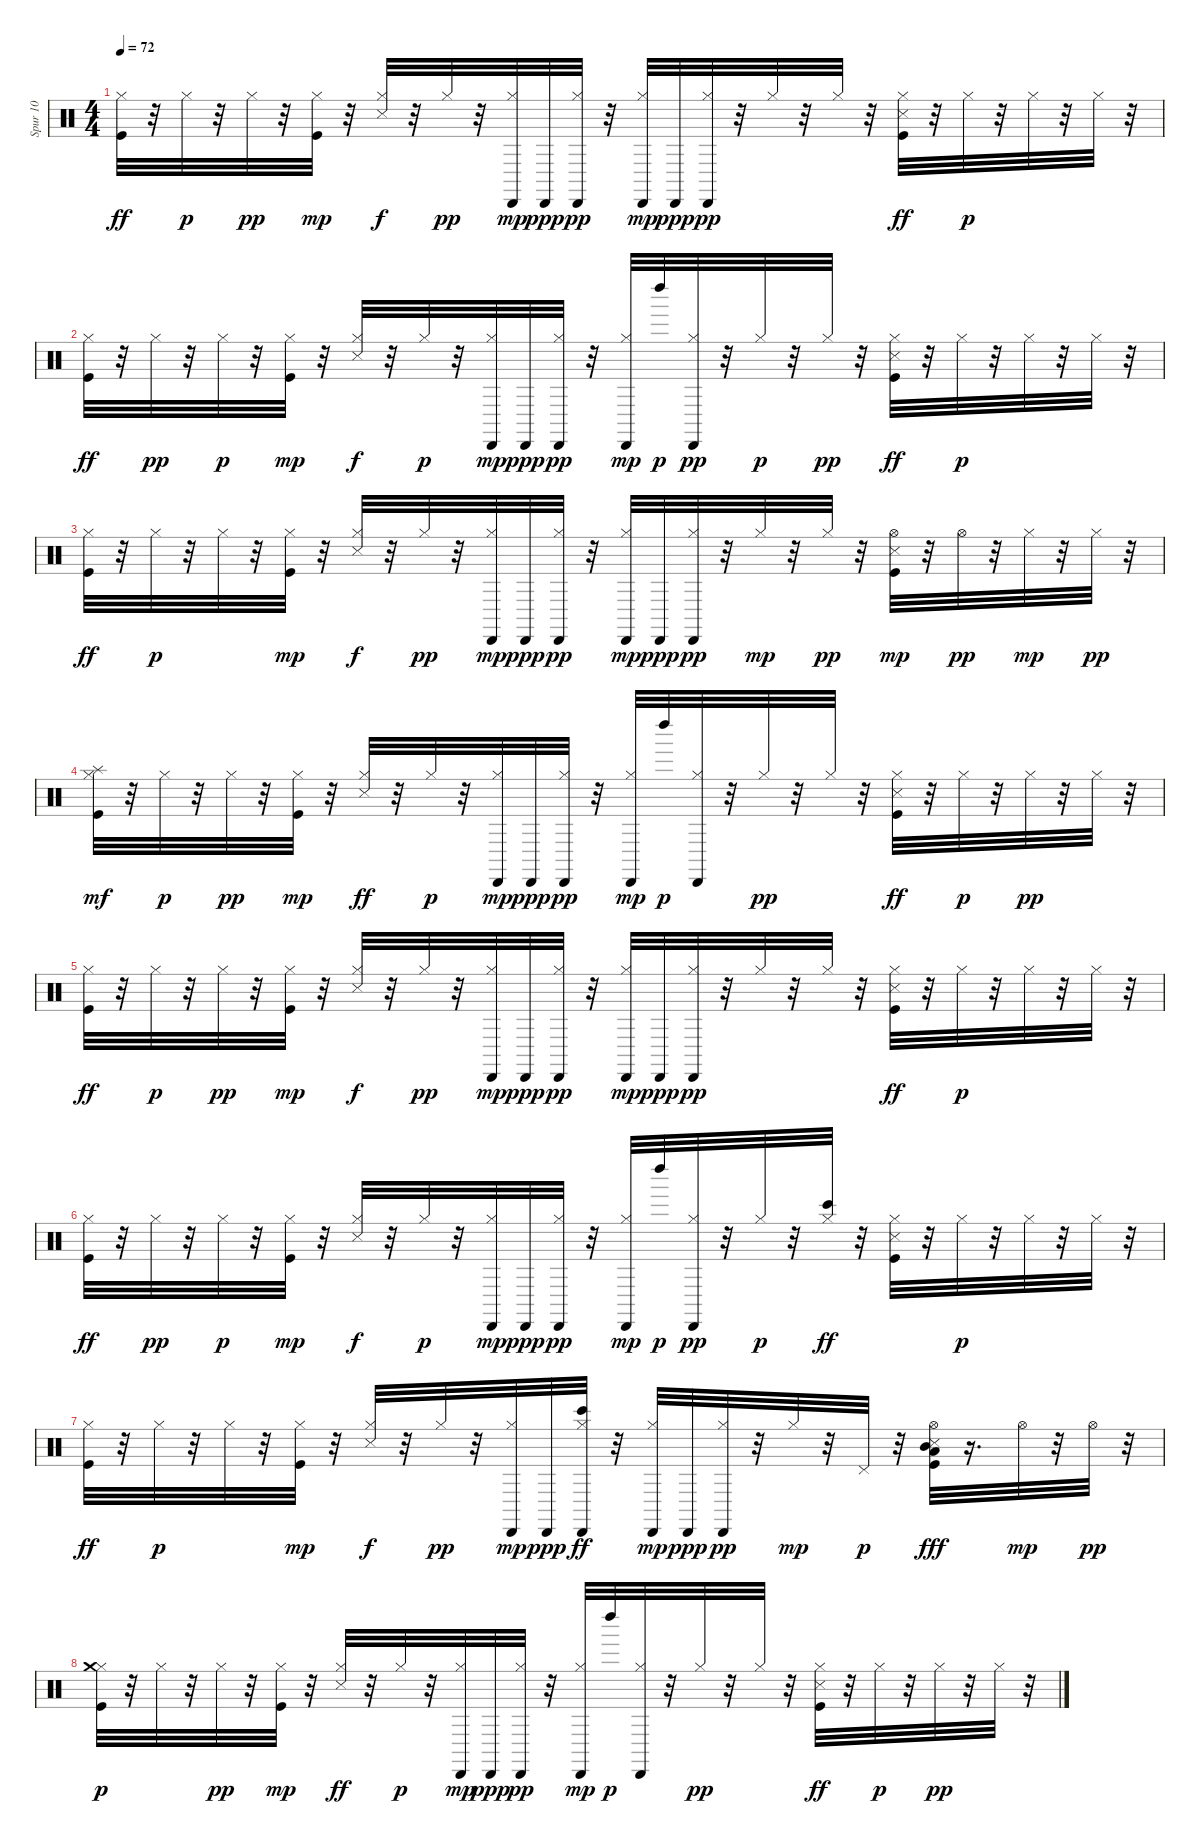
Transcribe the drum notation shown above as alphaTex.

\track ("Spur 10" "Spur 10") {instrument percussion}
\staff {score}
\articulation defaults
\ts (4 4)
\tempo 72
\clef neutral
\ks c
("Kick (hit)" "Hi-Hat (closed)").32{dy ff} r.32 "Hi-Hat (closed)".32{dy p} r.32 "Hi-Hat (closed)".32{dy pp} r.32 ("Hi-Hat (closed)" "Kick (hit)").32{dy mp} r.32 ("Hi-Hat (closed)" "Snare (side stick) 3").32{dy f} r.32 "Hi-Hat (closed)".32{dy pp} r.32 ("Hi-Hat (closed)" "Cabasa (hit)").32{dy mp} "Cabasa (hit)".32{dy ppp} ("Hi-Hat (closed)" "Cabasa (hit)").32{dy pp} r.32 ("Hi-Hat (closed)" "Cabasa (hit)").32{dy mp} "Cabasa (hit)".32{dy ppp} ("Cabasa (hit)" "Hi-Hat (closed)").32{dy pp} r.32 "Hi-Hat (closed)".32 r.32 "Hi-Hat (closed)".32 r.32 ("Snare (side stick) 3" "Kick (hit)" "Hi-Hat (closed)").32{dy ff} r.32 "Hi-Hat (closed)".32{dy p} r.32 "Hi-Hat (closed)".32 r.32 "Hi-Hat (closed)".32 r.32 |
("Kick (hit)" "Hi-Hat (closed)").32{dy ff} r.32 "Hi-Hat (closed)".32{dy pp} r.32 "Hi-Hat (closed)".32{dy p} r.32 ("Hi-Hat (closed)" "Kick (hit)").32{dy mp} r.32 ("Hi-Hat (closed)" "Snare (side stick) 3").32{dy f} r.32 "Hi-Hat (closed)".32{dy p} r.32 ("Hi-Hat (closed)" "Cabasa (hit)").32{dy mp} "Cabasa (hit)".32{dy ppp} ("Hi-Hat (closed)" "Cabasa (hit)").32{dy pp} r.32 ("Hi-Hat (closed)" "Cabasa (hit)").32{dy mp} "Left Maraca (hit)".32{dy p} ("Cabasa (hit)" "Hi-Hat (closed)").32{dy pp} r.32 "Hi-Hat (closed)".32{dy p} r.32 "Hi-Hat (closed)".32{dy pp} r.32 ("Snare (side stick) 3" "Kick (hit)" "Hi-Hat (closed)").32{dy ff} r.32 "Hi-Hat (closed)".32{dy p} r.32 "Hi-Hat (closed)".32 r.32 "Hi-Hat (closed)".32 r.32 |
("Kick (hit)" "Hi-Hat (closed)").32{dy ff} r.32 "Hi-Hat (closed)".32{dy p} r.32 "Hi-Hat (closed)".32 r.32 ("Hi-Hat (closed)" "Kick (hit)").32{dy mp} r.32 ("Hi-Hat (closed)" "Snare (side stick) 3").32{dy f} r.32 "Hi-Hat (closed)".32{dy pp} r.32 ("Hi-Hat (closed)" "Cabasa (hit)").32{dy mp} "Cabasa (hit)".32{dy ppp} ("Hi-Hat (closed)" "Cabasa (hit)").32{dy pp} r.32 ("Hi-Hat (closed)" "Cabasa (hit)").32{dy mp} "Cabasa (hit)".32{dy ppp} ("Cabasa (hit)" "Hi-Hat (closed)").32{dy pp} r.32 "Hi-Hat (closed)".32{dy mp} r.32 "Hi-Hat (closed)".32{dy pp} r.32 ("Snare (side stick) 3" "Kick (hit)" "Hi-Hat (open)").32{dy mp} r.32 "Hi-Hat (open)".32{dy pp} r.32 "Hi-Hat (closed)".32{dy mp} r.32 "Hi-Hat (closed)".32{dy pp} r.32 |
("Kick (hit)" "Hi-Hat (closed)" "Splash (hit)").32{dy mf} r.32 "Hi-Hat (closed)".32{dy p} r.32 "Hi-Hat (closed)".32{dy pp} r.32 ("Hi-Hat (closed)" "Kick (hit)").32{dy mp} r.32 ("Hi-Hat (closed)" "Snare (side stick) 3").32{dy ff} r.32 "Hi-Hat (closed)".32{dy p} r.32 ("Hi-Hat (closed)" "Cabasa (hit)").32{dy mp} "Cabasa (hit)".32{dy ppp} ("Hi-Hat (closed)" "Cabasa (hit)").32{dy pp} r.32 ("Cabasa (hit)" "Hi-Hat (closed)").32{dy mp} "Left Maraca (hit)".32{dy p} ("Cabasa (hit)" "Hi-Hat (closed)").32 r.32 "Hi-Hat (closed)".32{dy pp} r.32 "Hi-Hat (closed)".32 r.32 ("Snare (side stick) 3" "Kick (hit)" "Hi-Hat (closed)").32{dy ff} r.32 "Hi-Hat (closed)".32{dy p} r.32 "Hi-Hat (closed)".32{dy pp} r.32 "Hi-Hat (closed)".32 r.32 |
("Kick (hit)" "Hi-Hat (closed)").32{dy ff} r.32 "Hi-Hat (closed)".32{dy p} r.32 "Hi-Hat (closed)".32{dy pp} r.32 ("Hi-Hat (closed)" "Kick (hit)").32{dy mp} r.32 ("Hi-Hat (closed)" "Snare (side stick) 3").32{dy f} r.32 "Hi-Hat (closed)".32{dy pp} r.32 ("Hi-Hat (closed)" "Cabasa (hit)").32{dy mp} "Cabasa (hit)".32{dy ppp} ("Hi-Hat (closed)" "Cabasa (hit)").32{dy pp} r.32 ("Hi-Hat (closed)" "Cabasa (hit)").32{dy mp} "Cabasa (hit)".32{dy ppp} ("Cabasa (hit)" "Hi-Hat (closed)").32{dy pp} r.32 "Hi-Hat (closed)".32 r.32 "Hi-Hat (closed)".32 r.32 ("Snare (side stick) 3" "Kick (hit)" "Hi-Hat (closed)").32{dy ff} r.32 "Hi-Hat (closed)".32{dy p} r.32 "Hi-Hat (closed)".32 r.32 "Hi-Hat (closed)".32 r.32 |
("Kick (hit)" "Hi-Hat (closed)").32{dy ff} r.32 "Hi-Hat (closed)".32{dy pp} r.32 "Hi-Hat (closed)".32{dy p} r.32 ("Hi-Hat (closed)" "Kick (hit)").32{dy mp} r.32 ("Hi-Hat (closed)" "Snare (side stick) 3").32{dy f} r.32 "Hi-Hat (closed)".32{dy p} r.32 ("Hi-Hat (closed)" "Cabasa (hit)").32{dy mp} "Cabasa (hit)".32{dy ppp} ("Hi-Hat (closed)" "Cabasa (hit)").32{dy pp} r.32 ("Hi-Hat (closed)" "Cabasa (hit)").32{dy mp} "Left Maraca (hit)".32{dy p} ("Cabasa (hit)" "Hi-Hat (closed)").32{dy pp} r.32 "Hi-Hat (closed)".32{dy p} r.32 ("Hi-Hat (closed)" "Bongo High (hit)").32{dy ff} r.32 ("Snare (side stick) 3" "Kick (hit)" "Hi-Hat (closed)").32 r.32 "Hi-Hat (closed)".32{dy p} r.32 "Hi-Hat (closed)".32 r.32 "Hi-Hat (closed)".32 r.32 |
("Kick (hit)" "Hi-Hat (closed)").32{dy ff} r.32 "Hi-Hat (closed)".32{dy p} r.32 "Hi-Hat (closed)".32 r.32 ("Hi-Hat (closed)" "Kick (hit)").32{dy mp} r.32 ("Hi-Hat (closed)" "Snare (side stick) 3").32{dy f} r.32 "Hi-Hat (closed)".32{dy pp} r.32 ("Hi-Hat (closed)" "Cabasa (hit)").32{dy mp} "Cabasa (hit)".32{dy ppp} ("Hi-Hat (closed)" "Cabasa (hit)" "Bongo High (hit)").32{dy ff} r.32 ("Hi-Hat (closed)" "Cabasa (hit)").32{dy mp} "Cabasa (hit)".32{dy ppp} ("Cabasa (hit)" "Hi-Hat (closed)").32{dy pp} r.32 "Hi-Hat (closed)".32{dy mp} r.32 "Pedal Hi-Hat (hit)".32{dy p} r.32 ("Low Floor Tom (hit)" "Snare (side stick) 3" "Kick (hit)" "Hi-Hat (open)" "Mid Tom (hit)").32{dy fff} r.16{d} "Hi-Hat (open)".32{dy mp} r.32 "Hi-Hat (open)".32{dy pp} r.32 |
("Kick (hit)" "Hi-Hat (closed)" "Crash medium (hit)").32{dy p} r.32 "Hi-Hat (closed)".32 r.32 "Hi-Hat (closed)".32{dy pp} r.32 ("Hi-Hat (closed)" "Kick (hit)").32{dy mp} r.32 ("Hi-Hat (closed)" "Snare (side stick) 3").32{dy ff} r.32 "Hi-Hat (closed)".32{dy p} r.32 ("Hi-Hat (closed)" "Cabasa (hit)").32{dy mp} "Cabasa (hit)".32{dy ppp} ("Hi-Hat (closed)" "Cabasa (hit)").32{dy pp} r.32 ("Cabasa (hit)" "Hi-Hat (closed)").32{dy mp} "Left Maraca (hit)".32{dy p} ("Cabasa (hit)" "Hi-Hat (closed)").32 r.32 "Hi-Hat (closed)".32{dy pp} r.32 "Hi-Hat (closed)".32 r.32 ("Snare (side stick) 3" "Kick (hit)" "Hi-Hat (closed)").32{dy ff} r.32 "Hi-Hat (closed)".32{dy p} r.32 "Hi-Hat (closed)".32{dy pp} r.32 "Hi-Hat (closed)".32 r.32
